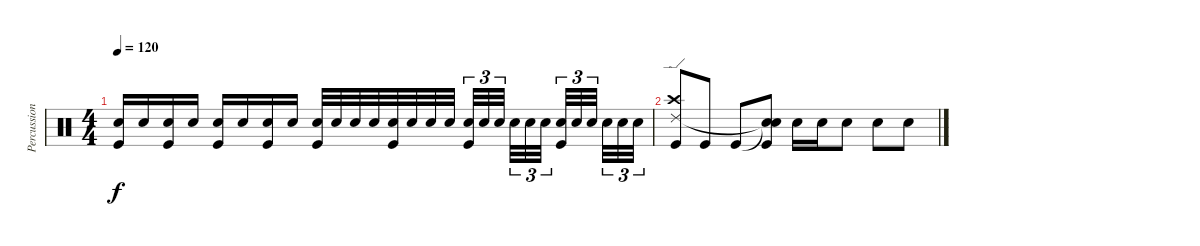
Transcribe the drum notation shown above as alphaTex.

\track ("Percussion" "Percussion") {instrument percussion}
\staff {score}
\articulation defaults
\ts (4 4)
\tempo 120
\clef neutral
\ks c
("Snare (hit) 2" "Kick (hit)").16{dy f} "Snare (hit) 2".16 ("Snare (hit) 2" "Kick (hit)").16 "Snare (hit) 2".16 ("Snare (hit) 2" "Kick (hit)").16 "Snare (hit) 2".16 ("Snare (hit) 2" "Kick (hit)").16 "Snare (hit) 2".16 ("Snare (hit) 2" "Kick (hit)").32 "Snare (hit) 2".32 "Snare (hit) 2".32 "Snare (hit) 2".32 ("Snare (hit) 2" "Kick (hit)").32 "Snare (hit) 2".32 "Snare (hit) 2".32 "Snare (hit) 2".32 ("Snare (hit) 2" "Kick (hit)").32{tu (3 2)} "Snare (hit) 2".32{tu (3 2)} "Snare (hit) 2".32{tu (3 2) beam splitsecondary} "Snare (hit) 2".32{tu (3 2)} "Snare (hit) 2".32{tu (3 2)} "Snare (hit) 2".32{tu (3 2) beam splitsecondary} ("Snare (hit) 2" "Kick (hit)").32{tu (3 2)} "Snare (hit) 2".32{tu (3 2)} "Snare (hit) 2".32{tu (3 2) beam splitsecondary} "Snare (hit) 2".32{tu (3 2)} "Snare (hit) 2".32{tu (3 2)} "Snare (hit) 2".32{tu (3 2)} |
("Crash high (hit)" "Ride (edge) 2" "Kick (hit)").8 "Kick (hit)".8 "Kick (hit)".8 ("Snare (hit)"{t} "Snare (hit)"{t} "Kick (hit)").8 "Snare (hit) 2".16 "Snare (hit) 2".16 "Snare (hit) 2".8 "Snare (hit) 2".8 "Snare (hit) 2".8
